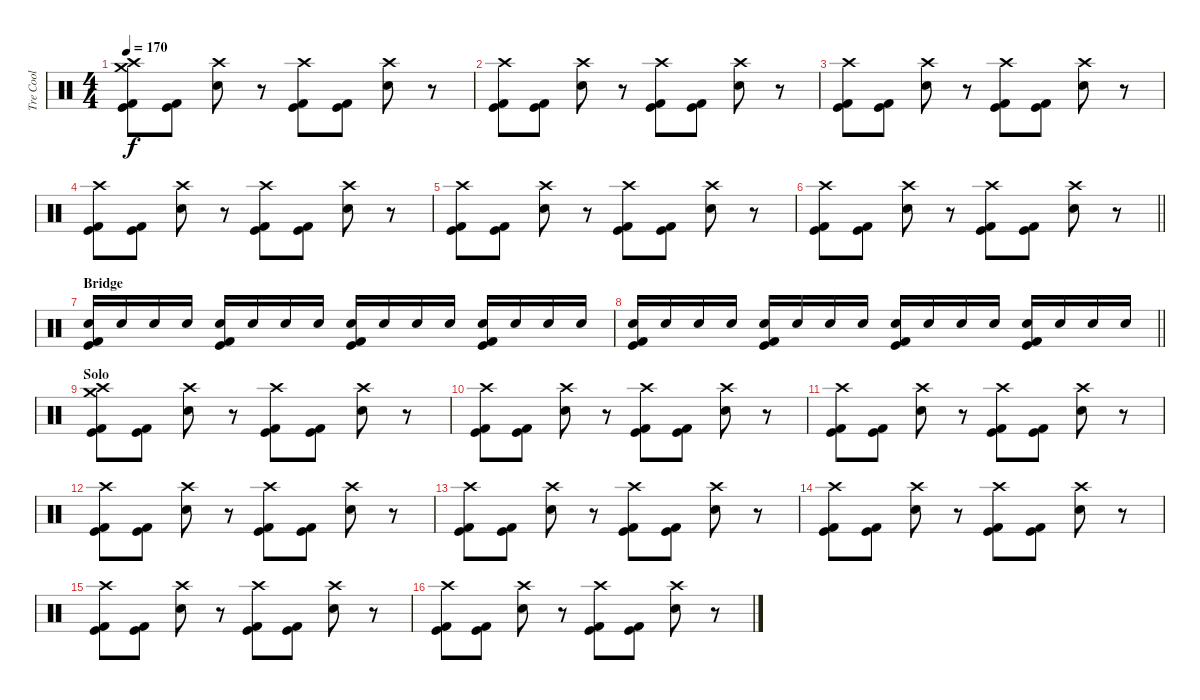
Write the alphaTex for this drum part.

\track ("Tre Cool" "Tre Cool") {instrument percussion}
\staff {score}
\articulation defaults
\ts (4 4)
\tempo 170
\clef neutral
\ks c
("Crash high (hit)" "Crash medium (hit)" "Kick (hit)" "Kick (hit) 2").8{dy f} ("Kick (hit)" "Kick (hit) 2").8 ("Crash high (hit)" "Electric Snare (hit)").8 r.8 ("Crash high (hit)" "Kick (hit)" "Kick (hit) 2").8 ("Kick (hit)" "Kick (hit) 2").8 ("Crash high (hit)" "Electric Snare (hit)").8 r.8 |
("Crash high (hit)" "Kick (hit)" "Kick (hit) 2").8 ("Kick (hit)" "Kick (hit) 2").8 ("Crash high (hit)" "Electric Snare (hit)").8 r.8 ("Crash high (hit)" "Kick (hit)" "Kick (hit) 2").8 ("Kick (hit)" "Kick (hit) 2").8 ("Crash high (hit)" "Electric Snare (hit)").8 r.8 |
("Crash high (hit)" "Kick (hit)" "Kick (hit) 2").8 ("Kick (hit)" "Kick (hit) 2").8 ("Crash high (hit)" "Electric Snare (hit)").8 r.8 ("Crash high (hit)" "Kick (hit)" "Kick (hit) 2").8 ("Kick (hit)" "Kick (hit) 2").8 ("Crash high (hit)" "Electric Snare (hit)").8 r.8 |
("Crash high (hit)" "Kick (hit)" "Kick (hit) 2").8 ("Kick (hit)" "Kick (hit) 2").8 ("Crash high (hit)" "Electric Snare (hit)").8 r.8 ("Crash high (hit)" "Kick (hit)" "Kick (hit) 2").8 ("Kick (hit)" "Kick (hit) 2").8 ("Crash high (hit)" "Electric Snare (hit)").8 r.8 |
("Crash high (hit)" "Kick (hit)" "Kick (hit) 2").8 ("Kick (hit)" "Kick (hit) 2").8 ("Crash high (hit)" "Electric Snare (hit)").8 r.8 ("Crash high (hit)" "Kick (hit)" "Kick (hit) 2").8 ("Kick (hit)" "Kick (hit) 2").8 ("Crash high (hit)" "Electric Snare (hit)").8 r.8 |
\barLineRight lightlight
("Crash high (hit)" "Kick (hit)" "Kick (hit) 2").8 ("Kick (hit)" "Kick (hit) 2").8 ("Crash high (hit)" "Electric Snare (hit)").8 r.8 ("Crash high (hit)" "Kick (hit)" "Kick (hit) 2").8 ("Kick (hit)" "Kick (hit) 2").8 ("Crash high (hit)" "Electric Snare (hit)").8 r.8 |
\section ("" "Bridge")
("Electric Snare (hit)" "Kick (hit)" "Kick (hit) 2").16 "Electric Snare (hit)".16 "Electric Snare (hit)".16 "Electric Snare (hit)".16 ("Electric Snare (hit)" "Kick (hit)" "Kick (hit) 2").16 "Electric Snare (hit)".16 "Electric Snare (hit)".16 "Electric Snare (hit)".16 ("Electric Snare (hit)" "Kick (hit)" "Kick (hit) 2").16 "Electric Snare (hit)".16 "Electric Snare (hit)".16 "Electric Snare (hit)".16 ("Electric Snare (hit)" "Kick (hit)" "Kick (hit) 2").16 "Electric Snare (hit)".16 "Electric Snare (hit)".16 "Electric Snare (hit)".16 |
\barLineRight lightlight
("Electric Snare (hit)" "Kick (hit)" "Kick (hit) 2").16 "Electric Snare (hit)".16 "Electric Snare (hit)".16 "Electric Snare (hit)".16 ("Electric Snare (hit)" "Kick (hit)" "Kick (hit) 2").16 "Electric Snare (hit)".16 "Electric Snare (hit)".16 "Electric Snare (hit)".16 ("Electric Snare (hit)" "Kick (hit)" "Kick (hit) 2").16 "Electric Snare (hit)".16 "Electric Snare (hit)".16 "Electric Snare (hit)".16 ("Electric Snare (hit)" "Kick (hit)" "Kick (hit) 2").16 "Electric Snare (hit)".16 "Electric Snare (hit)".16 "Electric Snare (hit)".16 |
\section ("" "Solo")
("Crash high (hit)" "Crash medium (hit)" "Kick (hit)" "Kick (hit) 2").8 ("Kick (hit)" "Kick (hit) 2").8 ("Crash high (hit)" "Electric Snare (hit)").8 r.8 ("Crash high (hit)" "Kick (hit)" "Kick (hit) 2").8 ("Kick (hit)" "Kick (hit) 2").8 ("Crash high (hit)" "Electric Snare (hit)").8 r.8 |
("Crash high (hit)" "Kick (hit)" "Kick (hit) 2").8 ("Kick (hit)" "Kick (hit) 2").8 ("Crash high (hit)" "Electric Snare (hit)").8 r.8 ("Crash high (hit)" "Kick (hit)" "Kick (hit) 2").8 ("Kick (hit)" "Kick (hit) 2").8 ("Crash high (hit)" "Electric Snare (hit)").8 r.8 |
("Crash high (hit)" "Kick (hit)" "Kick (hit) 2").8 ("Kick (hit)" "Kick (hit) 2").8 ("Crash high (hit)" "Electric Snare (hit)").8 r.8 ("Crash high (hit)" "Kick (hit)" "Kick (hit) 2").8 ("Kick (hit)" "Kick (hit) 2").8 ("Crash high (hit)" "Electric Snare (hit)").8 r.8 |
("Crash high (hit)" "Kick (hit)" "Kick (hit) 2").8 ("Kick (hit)" "Kick (hit) 2").8 ("Crash high (hit)" "Electric Snare (hit)").8 r.8 ("Crash high (hit)" "Kick (hit)" "Kick (hit) 2").8 ("Kick (hit)" "Kick (hit) 2").8 ("Crash high (hit)" "Electric Snare (hit)").8 r.8 |
("Crash high (hit)" "Kick (hit)" "Kick (hit) 2").8 ("Kick (hit)" "Kick (hit) 2").8 ("Crash high (hit)" "Electric Snare (hit)").8 r.8 ("Crash high (hit)" "Kick (hit)" "Kick (hit) 2").8 ("Kick (hit)" "Kick (hit) 2").8 ("Crash high (hit)" "Electric Snare (hit)").8 r.8 |
("Crash high (hit)" "Kick (hit)" "Kick (hit) 2").8 ("Kick (hit)" "Kick (hit) 2").8 ("Crash high (hit)" "Electric Snare (hit)").8 r.8 ("Crash high (hit)" "Kick (hit)" "Kick (hit) 2").8 ("Kick (hit)" "Kick (hit) 2").8 ("Crash high (hit)" "Electric Snare (hit)").8 r.8 |
("Crash high (hit)" "Kick (hit)" "Kick (hit) 2").8 ("Kick (hit)" "Kick (hit) 2").8 ("Crash high (hit)" "Electric Snare (hit)").8 r.8 ("Crash high (hit)" "Kick (hit)" "Kick (hit) 2").8 ("Kick (hit)" "Kick (hit) 2").8 ("Crash high (hit)" "Electric Snare (hit)").8 r.8 |
("Crash high (hit)" "Kick (hit)" "Kick (hit) 2").8 ("Kick (hit)" "Kick (hit) 2").8 ("Crash high (hit)" "Electric Snare (hit)").8 r.8 ("Crash high (hit)" "Kick (hit)" "Kick (hit) 2").8 ("Kick (hit)" "Kick (hit) 2").8 ("Crash high (hit)" "Electric Snare (hit)").8 r.8
